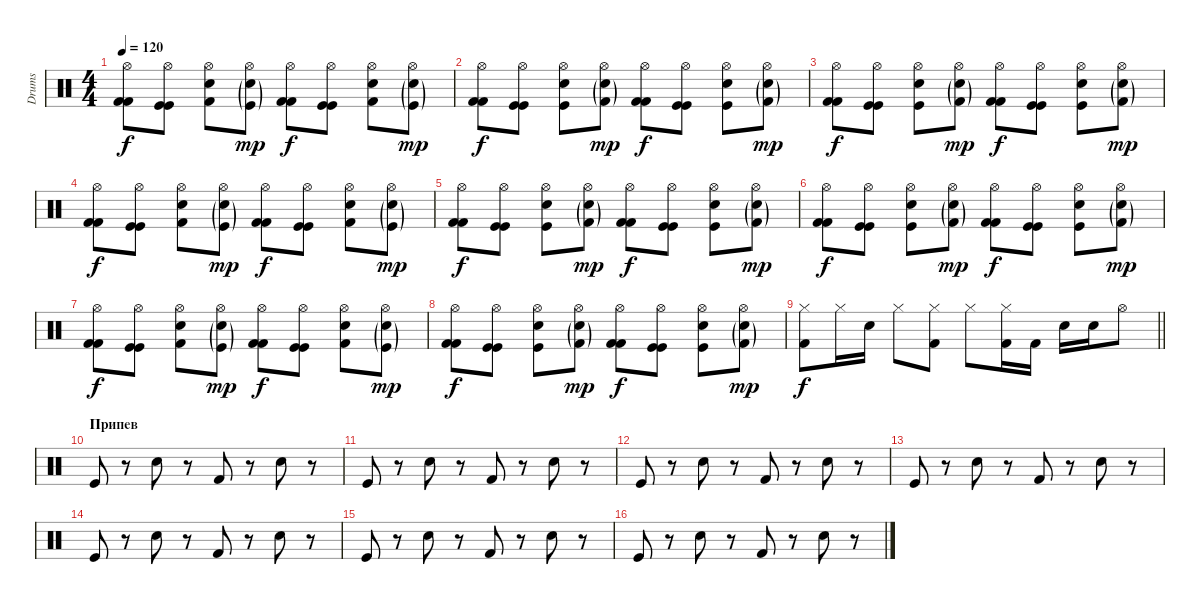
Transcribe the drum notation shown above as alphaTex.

\track ("Drums" "Drums") {instrument percussion}
\staff {score}
\articulation defaults
\ts (4 4)
\tempo 120
\clef neutral
\ks c
("Hi-Hat (open)" "Kick (hit) 2" "Kick (hit) 2").8{dy f} ("Hi-Hat (open)" "Kick (hit)" "Kick (hit)").8 ("Hi-Hat (open)" "Snare (hit) 2" "Kick (hit) 2").8 ("Hi-Hat (open)" "Electric Snare (hit)"{g} "Kick (hit)"{g}).8{dy mp} ("Hi-Hat (open)" "Kick (hit) 2" "Kick (hit) 2").8{dy f} ("Hi-Hat (open)" "Kick (hit)" "Kick (hit)").8 ("Hi-Hat (open)" "Snare (hit) 2" "Kick (hit) 2").8 ("Hi-Hat (open)" "Electric Snare (hit)"{g} "Kick (hit)"{g}).8{dy mp} |
("Hi-Hat (open)" "Kick (hit) 2" "Kick (hit) 2").8{dy f} ("Hi-Hat (open)" "Kick (hit)" "Kick (hit)").8 ("Hi-Hat (open)" "Electric Snare (hit)" "Kick (hit)").8 ("Hi-Hat (open)" "Snare (hit) 2"{g} "Kick (hit) 2"{g}).8{dy mp} ("Hi-Hat (open)" "Kick (hit) 2" "Kick (hit) 2").8{dy f} ("Hi-Hat (open)" "Kick (hit)" "Kick (hit)").8 ("Hi-Hat (open)" "Electric Snare (hit)" "Kick (hit)").8 ("Hi-Hat (open)" "Snare (hit) 2"{g} "Kick (hit) 2"{g}).8{dy mp} |
("Hi-Hat (open)" "Kick (hit) 2" "Kick (hit) 2").8{dy f} ("Hi-Hat (open)" "Kick (hit)" "Kick (hit)").8 ("Hi-Hat (open)" "Electric Snare (hit)" "Kick (hit)").8 ("Hi-Hat (open)" "Snare (hit) 2"{g} "Kick (hit) 2"{g}).8{dy mp} ("Hi-Hat (open)" "Kick (hit) 2" "Kick (hit) 2").8{dy f} ("Hi-Hat (open)" "Kick (hit)" "Kick (hit)").8 ("Hi-Hat (open)" "Electric Snare (hit)" "Kick (hit)").8 ("Hi-Hat (open)" "Snare (hit) 2"{g} "Kick (hit) 2"{g}).8{dy mp} |
("Hi-Hat (open)" "Kick (hit) 2" "Kick (hit) 2").8{dy f} ("Hi-Hat (open)" "Kick (hit)" "Kick (hit)").8 ("Hi-Hat (open)" "Snare (hit) 2" "Kick (hit) 2").8 ("Hi-Hat (open)" "Electric Snare (hit)"{g} "Kick (hit)"{g}).8{dy mp} ("Hi-Hat (open)" "Kick (hit) 2" "Kick (hit) 2").8{dy f} ("Hi-Hat (open)" "Kick (hit)" "Kick (hit)").8 ("Hi-Hat (open)" "Snare (hit) 2" "Kick (hit) 2").8 ("Hi-Hat (open)" "Electric Snare (hit)"{g} "Kick (hit)"{g}).8{dy mp} |
("Hi-Hat (open)" "Kick (hit) 2" "Kick (hit) 2").8{dy f} ("Hi-Hat (open)" "Kick (hit)" "Kick (hit)").8 ("Hi-Hat (open)" "Electric Snare (hit)" "Kick (hit)").8 ("Hi-Hat (open)" "Snare (hit) 2"{g} "Kick (hit) 2"{g}).8{dy mp} ("Hi-Hat (open)" "Kick (hit) 2" "Kick (hit) 2").8{dy f} ("Hi-Hat (open)" "Kick (hit)" "Kick (hit)").8 ("Hi-Hat (open)" "Electric Snare (hit)" "Kick (hit)").8 ("Hi-Hat (open)" "Snare (hit) 2"{g} "Kick (hit) 2"{g}).8{dy mp} |
("Hi-Hat (open)" "Kick (hit) 2" "Kick (hit) 2").8{dy f} ("Hi-Hat (open)" "Kick (hit)" "Kick (hit)").8 ("Hi-Hat (open)" "Electric Snare (hit)" "Kick (hit)").8 ("Hi-Hat (open)" "Snare (hit) 2"{g} "Kick (hit) 2"{g}).8{dy mp} ("Hi-Hat (open)" "Kick (hit) 2" "Kick (hit) 2").8{dy f} ("Hi-Hat (open)" "Kick (hit)" "Kick (hit)").8 ("Hi-Hat (open)" "Electric Snare (hit)" "Kick (hit)").8 ("Hi-Hat (open)" "Snare (hit) 2"{g} "Kick (hit) 2"{g}).8{dy mp} |
("Hi-Hat (open)" "Kick (hit) 2" "Kick (hit) 2").8{dy f} ("Hi-Hat (open)" "Kick (hit)" "Kick (hit)").8 ("Hi-Hat (open)" "Snare (hit) 2" "Kick (hit) 2").8 ("Hi-Hat (open)" "Electric Snare (hit)"{g} "Kick (hit)"{g}).8{dy mp} ("Hi-Hat (open)" "Kick (hit) 2" "Kick (hit) 2").8{dy f} ("Hi-Hat (open)" "Kick (hit)" "Kick (hit)").8 ("Hi-Hat (open)" "Snare (hit) 2" "Kick (hit) 2").8 ("Hi-Hat (open)" "Electric Snare (hit)"{g} "Kick (hit)"{g}).8{dy mp} |
("Hi-Hat (open)" "Kick (hit) 2" "Kick (hit) 2").8{dy f} ("Hi-Hat (open)" "Kick (hit)" "Kick (hit)").8 ("Hi-Hat (open)" "Electric Snare (hit)" "Kick (hit)").8 ("Hi-Hat (open)" "Snare (hit) 2"{g} "Kick (hit) 2"{g}).8{dy mp} ("Hi-Hat (open)" "Kick (hit) 2" "Kick (hit) 2").8{dy f} ("Hi-Hat (open)" "Kick (hit)" "Kick (hit)").8 ("Hi-Hat (open)" "Electric Snare (hit)" "Kick (hit)").8 ("Hi-Hat (open)" "Snare (hit) 2"{g} "Kick (hit) 2"{g}).8{dy mp} |
\barLineRight lightlight
("Hi-Hat (closed)" "Kick (hit) 2").8{dy f} "Hi-Hat (closed)".16 "Electric Snare (hit)".16 "Hi-Hat (closed)".8 ("Hi-Hat (closed)" "Kick (hit) 2").8 "Hi-Hat (closed)".8 ("Hi-Hat (closed)" "Kick (hit) 2").16 "Kick (hit) 2".16 "Electric Snare (hit)".16 "Electric Snare (hit)".16 "Hi-Hat (open)".8 |
\section ("" "Припев")
"Kick (hit)".8 r.8 "Electric Snare (hit)".8 r.8 "Kick (hit) 2".8 r.8 "Electric Snare (hit)".8 r.8 |
"Kick (hit)".8 r.8 "Electric Snare (hit)".8 r.8 "Kick (hit) 2".8 r.8 "Electric Snare (hit)".8 r.8 |
"Kick (hit)".8 r.8 "Electric Snare (hit)".8 r.8 "Kick (hit) 2".8 r.8 "Electric Snare (hit)".8 r.8 |
"Kick (hit)".8 r.8 "Electric Snare (hit)".8 r.8 "Kick (hit) 2".8 r.8 "Electric Snare (hit)".8 r.8 |
"Kick (hit)".8 r.8 "Electric Snare (hit)".8 r.8 "Kick (hit) 2".8 r.8 "Electric Snare (hit)".8 r.8 |
"Kick (hit)".8 r.8 "Electric Snare (hit)".8 r.8 "Kick (hit) 2".8 r.8 "Electric Snare (hit)".8 r.8 |
"Kick (hit)".8 r.8 "Electric Snare (hit)".8 r.8 "Kick (hit) 2".8 r.8 "Electric Snare (hit)".8 r.8
